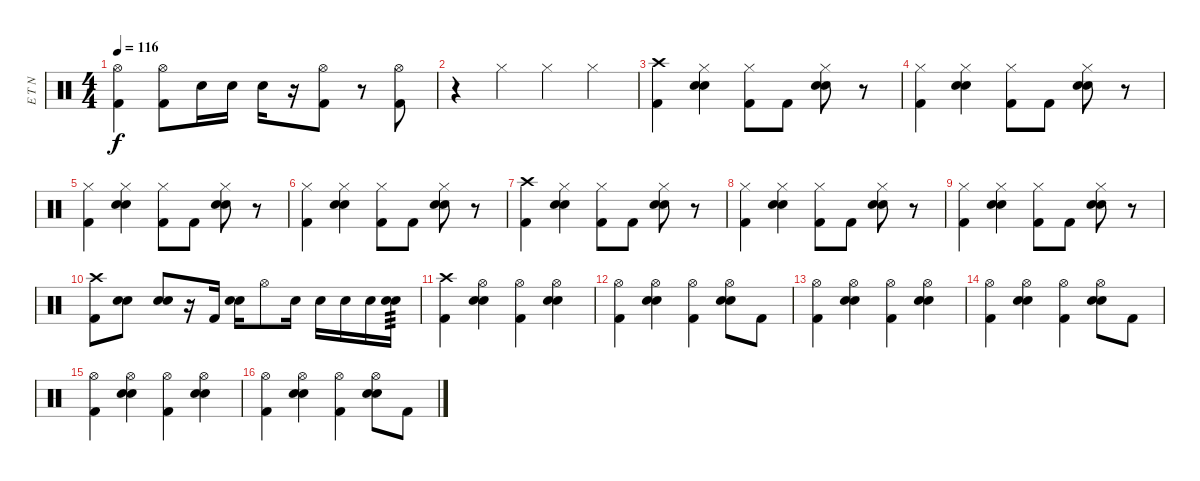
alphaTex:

\track ("E T N" "E T N") {instrument percussion}
\staff {score}
\articulation defaults
\ts (4 4)
\tempo 116
\clef neutral
\ks c
("Hi-Hat (open)" "Kick (hit) 2").4{dy f} ("Hi-Hat (open)" "Kick (hit) 2").8 "Electric Snare (hit)".16 "Electric Snare (hit)".16 "Electric Snare (hit)".16 r.16 ("Hi-Hat (open)" "Kick (hit) 2").8 r.8 ("Hi-Hat (open)" "Kick (hit) 2").8 |
r.4 "Hi-Hat (closed)".4 "Hi-Hat (closed)".4 "Hi-Hat (closed)".4 |
("Crash high (hit)" "Kick (hit) 2").4 ("Hi-Hat (closed)" "Electric Snare (hit)" "Electric Snare (hit)").4 ("Hi-Hat (closed)" "Kick (hit) 2").8 "Kick (hit) 2".8 ("Hi-Hat (closed)" "Electric Snare (hit)" "Electric Snare (hit)").8 r.8 |
("Hi-Hat (closed)" "Kick (hit) 2").4 ("Hi-Hat (closed)" "Electric Snare (hit)" "Electric Snare (hit)").4 ("Hi-Hat (closed)" "Kick (hit) 2").8 "Kick (hit) 2".8 ("Hi-Hat (closed)" "Electric Snare (hit)" "Electric Snare (hit)").8 r.8 |
("Hi-Hat (closed)" "Kick (hit) 2").4 ("Hi-Hat (closed)" "Electric Snare (hit)" "Electric Snare (hit)").4 ("Hi-Hat (closed)" "Kick (hit) 2").8 "Kick (hit) 2".8 ("Hi-Hat (closed)" "Electric Snare (hit)" "Electric Snare (hit)").8 r.8 |
("Hi-Hat (closed)" "Kick (hit) 2").4 ("Hi-Hat (closed)" "Electric Snare (hit)" "Electric Snare (hit)").4 ("Hi-Hat (closed)" "Kick (hit) 2").8 "Kick (hit) 2".8 ("Hi-Hat (closed)" "Electric Snare (hit)" "Electric Snare (hit)").8 r.8 |
("Crash high (hit)" "Kick (hit) 2").4 ("Hi-Hat (closed)" "Electric Snare (hit)" "Electric Snare (hit)").4 ("Hi-Hat (closed)" "Kick (hit) 2").8 "Kick (hit) 2".8 ("Hi-Hat (closed)" "Electric Snare (hit)" "Electric Snare (hit)").8 r.8 |
("Hi-Hat (closed)" "Kick (hit) 2").4 ("Hi-Hat (closed)" "Electric Snare (hit)" "Electric Snare (hit)").4 ("Hi-Hat (closed)" "Kick (hit) 2").8 "Kick (hit) 2".8 ("Hi-Hat (closed)" "Electric Snare (hit)" "Electric Snare (hit)").8 r.8 |
("Hi-Hat (closed)" "Kick (hit) 2").4 ("Hi-Hat (closed)" "Electric Snare (hit)" "Electric Snare (hit)").4 ("Hi-Hat (closed)" "Kick (hit) 2").8 "Kick (hit) 2".8 ("Hi-Hat (closed)" "Electric Snare (hit)" "Electric Snare (hit)").8 r.8 |
("Crash high (hit)" "Kick (hit) 2").8 ("Electric Snare (hit)" "Electric Snare (hit)").8 ("Electric Snare (hit)" "Electric Snare (hit)").8 r.16 "Kick (hit) 2".16 ("Electric Snare (hit)" "Electric Snare (hit)").16 "Hi-Hat (open)".8 "Electric Snare (hit)".16 "Electric Snare (hit)".16 "Electric Snare (hit)".16 "Electric Snare (hit)".16 ("Electric Snare (hit)" "Electric Snare (hit)").16{tp 3} |
("Crash high (hit)" "Kick (hit) 2").4 ("Hi-Hat (open)" "Electric Snare (hit)" "Electric Snare (hit)").4 ("Hi-Hat (open)" "Kick (hit) 2").4 ("Hi-Hat (open)" "Electric Snare (hit)" "Electric Snare (hit)").4 |
("Hi-Hat (open)" "Kick (hit) 2").4 ("Hi-Hat (open)" "Electric Snare (hit)" "Electric Snare (hit)").4 ("Hi-Hat (open)" "Kick (hit) 2").4 ("Hi-Hat (open)" "Electric Snare (hit)" "Electric Snare (hit)").8 "Kick (hit) 2".8 |
("Hi-Hat (open)" "Kick (hit) 2").4 ("Hi-Hat (open)" "Electric Snare (hit)" "Electric Snare (hit)").4 ("Hi-Hat (open)" "Kick (hit) 2").4 ("Hi-Hat (open)" "Electric Snare (hit)" "Electric Snare (hit)").4 |
("Hi-Hat (open)" "Kick (hit) 2").4 ("Hi-Hat (open)" "Electric Snare (hit)" "Electric Snare (hit)").4 ("Hi-Hat (open)" "Kick (hit) 2").4 ("Hi-Hat (open)" "Electric Snare (hit)" "Electric Snare (hit)").8 "Kick (hit) 2".8 |
("Hi-Hat (open)" "Kick (hit) 2").4 ("Hi-Hat (open)" "Electric Snare (hit)" "Electric Snare (hit)").4 ("Hi-Hat (open)" "Kick (hit) 2").4 ("Hi-Hat (open)" "Electric Snare (hit)" "Electric Snare (hit)").4 |
("Hi-Hat (open)" "Kick (hit) 2").4 ("Hi-Hat (open)" "Electric Snare (hit)" "Electric Snare (hit)").4 ("Hi-Hat (open)" "Kick (hit) 2").4 ("Hi-Hat (open)" "Electric Snare (hit)" "Electric Snare (hit)").8 "Kick (hit) 2".8
